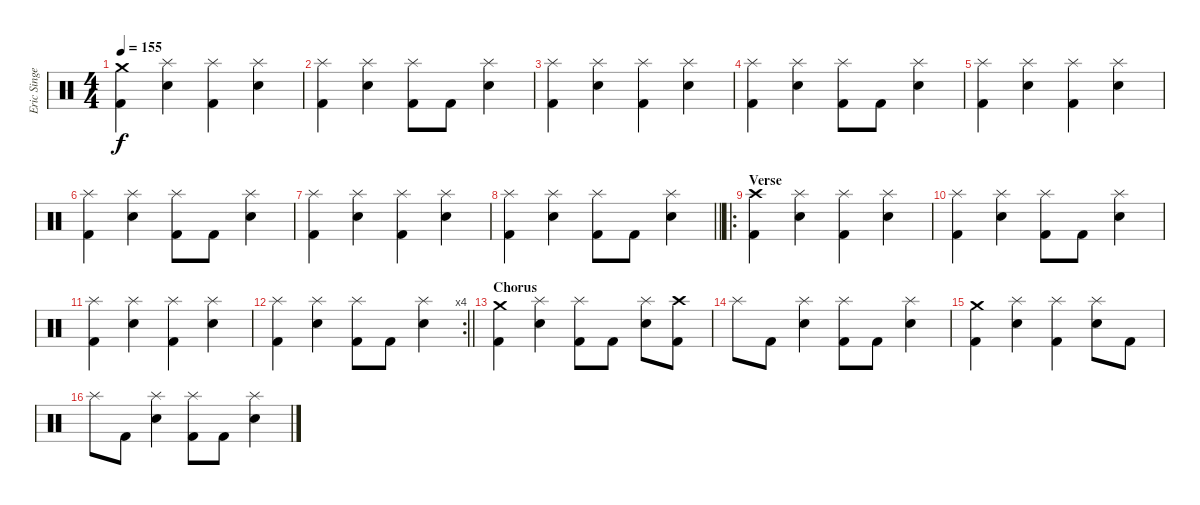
\track ("Eric Singer" "Eric Singe") {instrument percussion}
\staff {score}
\articulation defaults
\ts (4 4)
\tempo 155
\clef neutral
\ks c
("Crash medium (hit)" "Kick (hit) 2").4{dy f} ("Splash (hit)" "Snare (hit) 2").4 ("Splash (hit)" "Kick (hit) 2").4 ("Splash (hit)" "Snare (hit) 2").4 |
("Splash (hit)" "Kick (hit) 2").4 ("Splash (hit)" "Snare (hit) 2").4 ("Splash (hit)" "Kick (hit) 2").8 "Kick (hit) 2".8 ("Splash (hit)" "Snare (hit) 2").4 |
("Splash (hit)" "Kick (hit) 2").4 ("Splash (hit)" "Snare (hit) 2").4 ("Splash (hit)" "Kick (hit) 2").4 ("Splash (hit)" "Snare (hit) 2").4 |
("Splash (hit)" "Kick (hit) 2").4 ("Splash (hit)" "Snare (hit) 2").4 ("Splash (hit)" "Kick (hit) 2").8 "Kick (hit) 2".8 ("Splash (hit)" "Snare (hit) 2").4 |
("Splash (hit)" "Kick (hit) 2").4 ("Splash (hit)" "Snare (hit) 2").4 ("Splash (hit)" "Kick (hit) 2").4 ("Splash (hit)" "Snare (hit) 2").4 |
("Splash (hit)" "Kick (hit) 2").4 ("Splash (hit)" "Snare (hit) 2").4 ("Splash (hit)" "Kick (hit) 2").8 "Kick (hit) 2".8 ("Splash (hit)" "Snare (hit) 2").4 |
("Splash (hit)" "Kick (hit) 2").4 ("Splash (hit)" "Snare (hit) 2").4 ("Splash (hit)" "Kick (hit) 2").4 ("Splash (hit)" "Snare (hit) 2").4 |
\barLineRight lightlight
("Splash (hit)" "Kick (hit) 2").4 ("Splash (hit)" "Snare (hit) 2").4 ("Splash (hit)" "Kick (hit) 2").8 "Kick (hit) 2".8 ("Splash (hit)" "Snare (hit) 2").4 |
\ro
\section ("" "Verse")
("Crash high (hit)" "Kick (hit) 2").4 ("Splash (hit)" "Snare (hit) 2").4 ("Splash (hit)" "Kick (hit) 2").4 ("Splash (hit)" "Snare (hit) 2").4 |
("Splash (hit)" "Kick (hit) 2").4 ("Splash (hit)" "Snare (hit) 2").4 ("Splash (hit)" "Kick (hit) 2").8 "Kick (hit) 2".8 ("Splash (hit)" "Snare (hit) 2").4 |
("Splash (hit)" "Kick (hit) 2").4 ("Splash (hit)" "Snare (hit) 2").4 ("Splash (hit)" "Kick (hit) 2").4 ("Splash (hit)" "Snare (hit) 2").4 |
\rc 4
\barLineRight lightlight
("Splash (hit)" "Kick (hit) 2").4 ("Splash (hit)" "Snare (hit) 2").4 ("Splash (hit)" "Kick (hit) 2").8 "Kick (hit) 2".8 ("Splash (hit)" "Snare (hit) 2").4 |
\section ("" "Chorus")
("Crash medium (hit)" "Kick (hit) 2").4 ("Splash (hit)" "Snare (hit) 2").4 ("Splash (hit)" "Kick (hit) 2").8 "Kick (hit) 2".8 ("Splash (hit)" "Snare (hit) 2").8 ("Crash high (hit)" "Kick (hit) 2").8 |
"Splash (hit)".8 "Kick (hit) 2".8 ("Splash (hit)" "Snare (hit) 2").4 ("Splash (hit)" "Kick (hit) 2").8 "Kick (hit) 2".8 ("Splash (hit)" "Snare (hit) 2").4 |
("Crash medium (hit)" "Kick (hit) 2").4 ("Splash (hit)" "Snare (hit) 2").4 ("Splash (hit)" "Kick (hit) 2").4 ("Splash (hit)" "Snare (hit) 2").8 "Kick (hit) 2".8 |
"Splash (hit)".8 "Kick (hit) 2".8 ("Splash (hit)" "Snare (hit) 2").4 ("Splash (hit)" "Kick (hit) 2").8 "Kick (hit) 2".8 ("Splash (hit)" "Snare (hit) 2").4
